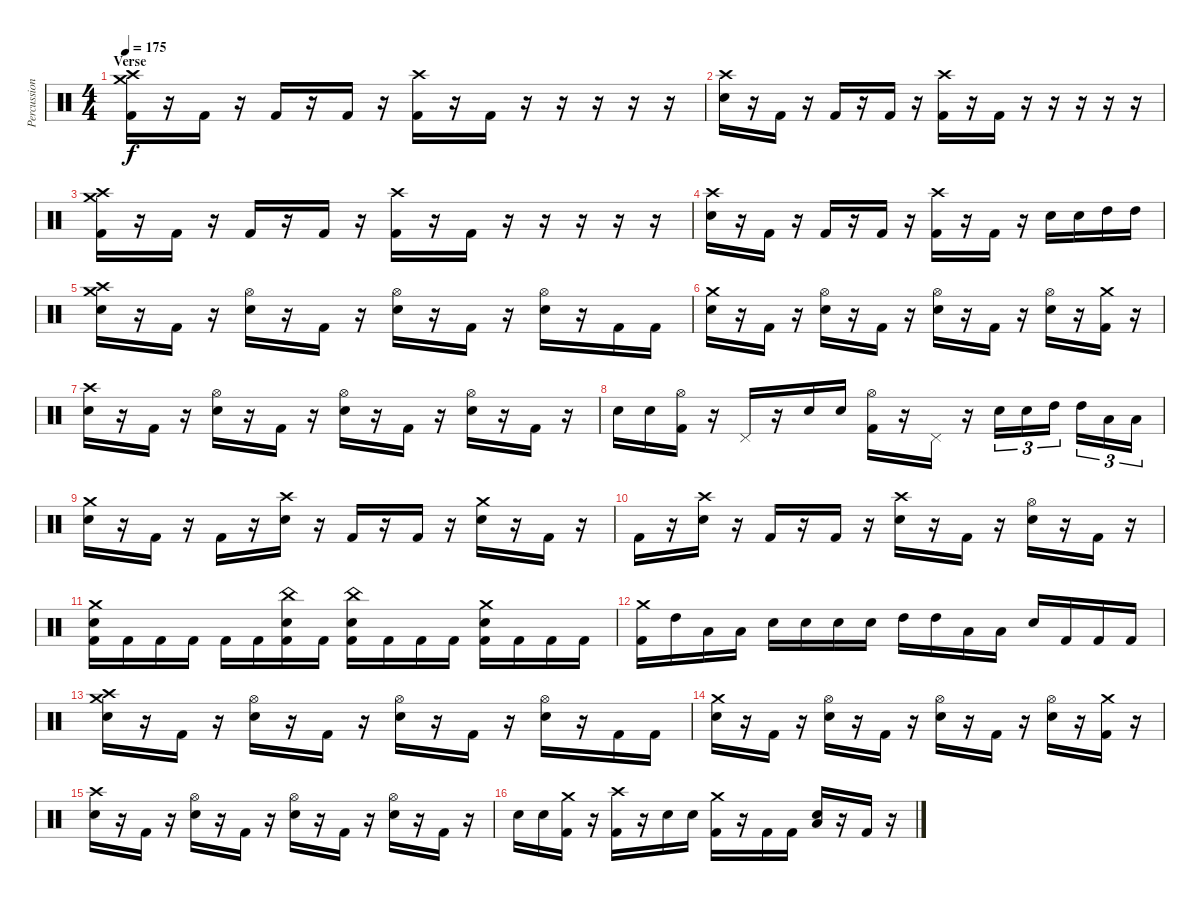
\track ("Percussion" "Percussion") {instrument percussion}
\staff {score}
\articulation defaults
\ts (4 4)
\section ("" "Verse")
\tempo 175
\clef neutral
\ks c
("Crash high (hit)" "Crash medium (hit)" "Kick (hit) 2").16{dy f} r.16 "Kick (hit) 2".16 r.16 "Kick (hit) 2".16 r.16 "Kick (hit) 2".16 r.16 ("Crash high (hit)" "Kick (hit) 2").16 r.16 "Kick (hit) 2".16 r.16 r.16 r.16 r.16 r.16 |
("Crash high (hit)" "Electric Snare (hit)").16 r.16 "Kick (hit) 2".16 r.16 "Kick (hit) 2".16 r.16 "Kick (hit) 2".16 r.16 ("Crash high (hit)" "Kick (hit) 2").16 r.16 "Kick (hit) 2".16 r.16 r.16 r.16 r.16 r.16 |
("Crash high (hit)" "Crash medium (hit)" "Kick (hit) 2").16 r.16 "Kick (hit) 2".16 r.16 "Kick (hit) 2".16 r.16 "Kick (hit) 2".16 r.16 ("Crash high (hit)" "Kick (hit) 2").16 r.16 "Kick (hit) 2".16 r.16 r.16 r.16 r.16 r.16 |
("Crash high (hit)" "Electric Snare (hit)").16 r.16 "Kick (hit) 2".16 r.16 "Kick (hit) 2".16 r.16 "Kick (hit) 2".16 r.16 ("Crash high (hit)" "Kick (hit) 2").16 r.16 "Kick (hit) 2".16 r.16 "Electric Snare (hit)".16 "Electric Snare (hit)".16 "High Tom (hit)".16 "High Tom (hit)".16 |
("Crash medium (hit)" "Crash high (hit)" "Electric Snare (hit)").16 r.16 "Kick (hit) 2".16 r.16 ("Hi-Hat (open)" "Electric Snare (hit)").16 r.16 "Kick (hit) 2".16 r.16 ("Hi-Hat (open)" "Electric Snare (hit)").16 r.16 "Kick (hit) 2".16 r.16 ("Hi-Hat (open)" "Electric Snare (hit)").16 r.16 "Kick (hit) 2".16 "Kick (hit) 2".16 |
("Crash medium (hit)" "Electric Snare (hit)").16 r.16 "Kick (hit) 2".16 r.16 ("Hi-Hat (open)" "Electric Snare (hit)").16 r.16 "Kick (hit) 2".16 r.16 ("Hi-Hat (open)" "Electric Snare (hit)").16 r.16 "Kick (hit) 2".16 r.16 ("Hi-Hat (open)" "Electric Snare (hit)").16 r.16 ("Crash medium (hit)" "Kick (hit) 2").16 r.16 |
("Crash high (hit)" "Electric Snare (hit)").16 r.16 "Kick (hit) 2".16 r.16 ("Hi-Hat (open)" "Electric Snare (hit)").16 r.16 "Kick (hit) 2".16 r.16 ("Hi-Hat (open)" "Electric Snare (hit)").16 r.16 "Kick (hit) 2".16 r.16 ("Hi-Hat (open)" "Electric Snare (hit)").16 r.16 "Kick (hit) 2".16 r.16 |
"Electric Snare (hit)".16 "Electric Snare (hit)".16 ("Hi-Hat (open)" "Kick (hit) 2").16 r.16 "Pedal Hi-Hat (hit)".16 r.16 "Electric Snare (hit)".16 "Electric Snare (hit)".16 ("Hi-Hat (open)" "Kick (hit) 2").16 r.16 "Pedal Hi-Hat (hit)".16 r.16 "Electric Snare (hit)".16{tu (3 2)} "Electric Snare (hit)".16{tu (3 2)} "High Tom (hit)".16{tu (3 2) beam splitsecondary} "High Tom (hit)".16{tu (3 2)} "Low Floor Tom (hit)".16{tu (3 2)} "Low Floor Tom (hit)".16{tu (3 2)} |
("Crash medium (hit)" "Electric Snare (hit)").16 r.16 "Kick (hit) 2".16 r.16 "Kick (hit) 2".16 r.16 ("Crash high (hit)" "Electric Snare (hit)").16 r.16 "Kick (hit) 2".16 r.16 "Kick (hit) 2".16 r.16 ("Crash medium (hit)" "Electric Snare (hit)").16 r.16 "Kick (hit) 2".16 r.16 |
"Kick (hit) 2".16 r.16 ("Crash high (hit)" "Electric Snare (hit)").16 r.16 "Kick (hit) 2".16 r.16 "Kick (hit) 2".16 r.16 ("Crash high (hit)" "Electric Snare (hit)").16 r.16 "Kick (hit) 2".16 r.16 ("Hi-Hat (open)" "Electric Snare (hit)").16 r.16 "Kick (hit) 2".16 r.16 |
("Crash medium (hit)" "Electric Snare (hit)" "Kick (hit) 2").16 "Kick (hit) 2".16 "Kick (hit) 2".16 "Kick (hit) 2".16 "Kick (hit) 2".16 "Kick (hit) 2".16 ("China (hit)" "Electric Snare (hit)" "Kick (hit) 2").16 "Kick (hit) 2".16 ("China (hit)" "Electric Snare (hit)" "Kick (hit) 2").16 "Kick (hit) 2".16 "Kick (hit) 2".16 "Kick (hit) 2".16 ("Crash medium (hit)" "Electric Snare (hit)" "Kick (hit) 2").16 "Kick (hit) 2".16 "Kick (hit) 2".16 "Kick (hit) 2".16 |
("Crash medium (hit)" "Kick (hit) 2").16 "High Tom (hit)".16 "Low Floor Tom (hit)".16 "Low Floor Tom (hit)".16 "Electric Snare (hit)".16 "Electric Snare (hit)".16 "Electric Snare (hit)".16 "Electric Snare (hit)".16 "High Tom (hit)".16 "High Tom (hit)".16 "Low Floor Tom (hit)".16 "Low Floor Tom (hit)".16 "Electric Snare (hit)".16 "Kick (hit) 2".16 "Kick (hit) 2".16 "Kick (hit) 2".16 |
("Crash medium (hit)" "Crash high (hit)" "Electric Snare (hit)").16 r.16 "Kick (hit) 2".16 r.16 ("Hi-Hat (open)" "Electric Snare (hit)").16 r.16 "Kick (hit) 2".16 r.16 ("Hi-Hat (open)" "Electric Snare (hit)").16 r.16 "Kick (hit) 2".16 r.16 ("Hi-Hat (open)" "Electric Snare (hit)").16 r.16 "Kick (hit) 2".16 "Kick (hit) 2".16 |
("Crash medium (hit)" "Electric Snare (hit)").16 r.16 "Kick (hit) 2".16 r.16 ("Hi-Hat (open)" "Electric Snare (hit)").16 r.16 "Kick (hit) 2".16 r.16 ("Hi-Hat (open)" "Electric Snare (hit)").16 r.16 "Kick (hit) 2".16 r.16 ("Hi-Hat (open)" "Electric Snare (hit)").16 r.16 ("Crash medium (hit)" "Kick (hit) 2").16 r.16 |
("Crash high (hit)" "Electric Snare (hit)").16 r.16 "Kick (hit) 2".16 r.16 ("Hi-Hat (open)" "Electric Snare (hit)").16 r.16 "Kick (hit) 2".16 r.16 ("Hi-Hat (open)" "Electric Snare (hit)").16 r.16 "Kick (hit) 2".16 r.16 ("Hi-Hat (open)" "Electric Snare (hit)").16 r.16 "Kick (hit) 2".16 r.16 |
"Electric Snare (hit)".16 "Electric Snare (hit)".16 ("Crash medium (hit)" "Kick (hit) 2").16 r.16 ("Crash high (hit)" "Kick (hit) 2").16 r.16 "Electric Snare (hit)".16 "Electric Snare (hit)".16 ("Crash medium (hit)" "Kick (hit) 2").16 r.16 "Kick (hit) 2".16 "Kick (hit) 2".16 ("Low Floor Tom (hit)" "Electric Snare (hit)").16 r.16 "Kick (hit) 2".16 r.16
